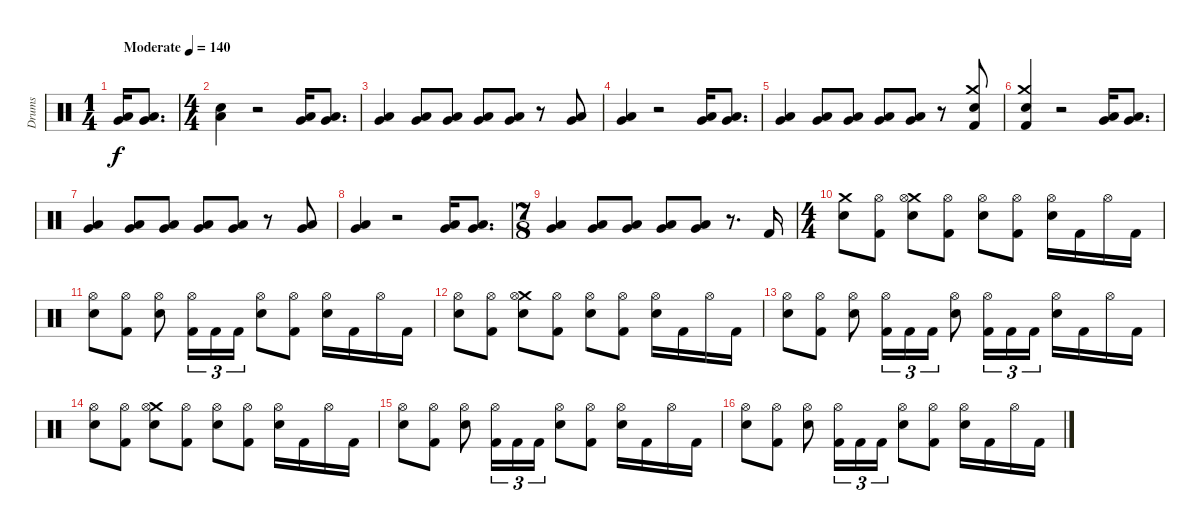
\track ("Drums" "Drums") {instrument percussion}
\staff {score}
\articulation defaults
\ts (1 4)
\tempo (140 "Moderate")
\clef neutral
\ks c
("Very Low Tom (hit)" "Low Tom (hit)").16{dy f} ("Very Low Tom (hit)" "Low Tom (hit)").8{d} |
\ts (4 4)
("Electric Snare (hit)" "Low Tom (hit)").4 r.2 ("Very Low Tom (hit)" "Low Tom (hit)").16 ("Very Low Tom (hit)" "Low Tom (hit)").8{d} |
("Very Low Tom (hit)" "Low Tom (hit)").4 ("Very Low Tom (hit)" "Low Tom (hit)").8 ("Very Low Tom (hit)" "Low Tom (hit)").8 ("Very Low Tom (hit)" "Low Tom (hit)").8 ("Very Low Tom (hit)" "Low Tom (hit)").8 r.8 ("Very Low Tom (hit)" "Low Tom (hit)").8 |
("Very Low Tom (hit)" "Low Tom (hit)").4 r.2 ("Very Low Tom (hit)" "Low Tom (hit)").16 ("Very Low Tom (hit)" "Low Tom (hit)").8{d} |
("Very Low Tom (hit)" "Low Tom (hit)").4 ("Very Low Tom (hit)" "Low Tom (hit)").8 ("Very Low Tom (hit)" "Low Tom (hit)").8 ("Very Low Tom (hit)" "Low Tom (hit)").8 ("Very Low Tom (hit)" "Low Tom (hit)").8 r.8 ("Crash medium (hit)" "Electric Snare (hit)" "Kick (hit) 2").8 |
("Crash medium (hit)" "Electric Snare (hit)" "Kick (hit) 2").4 r.2 ("Very Low Tom (hit)" "Low Tom (hit)").16 ("Very Low Tom (hit)" "Low Tom (hit)").8{d} |
("Very Low Tom (hit)" "Low Tom (hit)").4 ("Very Low Tom (hit)" "Low Tom (hit)").8 ("Very Low Tom (hit)" "Low Tom (hit)").8 ("Very Low Tom (hit)" "Low Tom (hit)").8 ("Very Low Tom (hit)" "Low Tom (hit)").8 r.8 ("Very Low Tom (hit)" "Low Tom (hit)").8 |
("Very Low Tom (hit)" "Low Tom (hit)").4 r.2 ("Very Low Tom (hit)" "Low Tom (hit)").16 ("Very Low Tom (hit)" "Low Tom (hit)").8{d} |
\ts (7 8)
("Very Low Tom (hit)" "Low Tom (hit)").4 ("Very Low Tom (hit)" "Low Tom (hit)").8 ("Very Low Tom (hit)" "Low Tom (hit)").8 ("Very Low Tom (hit)" "Low Tom (hit)").8 ("Very Low Tom (hit)" "Low Tom (hit)").8 r.8{d} "Kick (hit) 2".16 |
\ts (4 4)
("Crash medium (hit)" "Electric Snare (hit)").8 ("Hi-Hat (open)" "Kick (hit) 2").8 ("Crash medium (hit)" "Hi-Hat (open)" "Electric Snare (hit)").8 ("Hi-Hat (open)" "Kick (hit) 2").8 ("Hi-Hat (open)" "Electric Snare (hit)").8 ("Hi-Hat (open)" "Kick (hit) 2").8 ("Hi-Hat (open)" "Electric Snare (hit)").16 "Kick (hit) 2".16 "Hi-Hat (open)".16 "Kick (hit) 2".16 |
("Hi-Hat (open)" "Electric Snare (hit)").8 ("Hi-Hat (open)" "Kick (hit) 2").8 ("Hi-Hat (open)" "Electric Snare (hit)").8 ("Hi-Hat (open)" "Kick (hit) 2").16{tu (3 2)} "Kick (hit) 2".16{tu (3 2)} "Kick (hit) 2".16{tu (3 2)} ("Hi-Hat (open)" "Electric Snare (hit)").8 ("Hi-Hat (open)" "Kick (hit) 2").8 ("Hi-Hat (open)" "Electric Snare (hit)").16 "Kick (hit) 2".16 "Hi-Hat (open)".16 "Kick (hit) 2".16 |
("Hi-Hat (open)" "Electric Snare (hit)").8 ("Hi-Hat (open)" "Kick (hit) 2").8 ("Crash medium (hit)" "Hi-Hat (open)" "Electric Snare (hit)").8 ("Hi-Hat (open)" "Kick (hit) 2").8 ("Hi-Hat (open)" "Electric Snare (hit)").8 ("Hi-Hat (open)" "Kick (hit) 2").8 ("Hi-Hat (open)" "Electric Snare (hit)").16 "Kick (hit) 2".16 "Hi-Hat (open)".16 "Kick (hit) 2".16 |
("Hi-Hat (open)" "Electric Snare (hit)").8 ("Hi-Hat (open)" "Kick (hit) 2").8 ("Hi-Hat (open)" "Electric Snare (hit)").8 ("Hi-Hat (open)" "Kick (hit) 2").16{tu (3 2)} "Kick (hit) 2".16{tu (3 2)} "Kick (hit) 2".16{tu (3 2)} ("Hi-Hat (open)" "Electric Snare (hit)").8 ("Hi-Hat (open)" "Kick (hit) 2").16{tu (3 2)} "Kick (hit) 2".16{tu (3 2)} "Kick (hit) 2".16{tu (3 2)} ("Hi-Hat (open)" "Electric Snare (hit)").16 "Kick (hit) 2".16 "Hi-Hat (open)".16 "Kick (hit) 2".16 |
("Hi-Hat (open)" "Electric Snare (hit)").8 ("Hi-Hat (open)" "Kick (hit) 2").8 ("Crash medium (hit)" "Hi-Hat (open)" "Electric Snare (hit)").8 ("Hi-Hat (open)" "Kick (hit) 2").8 ("Hi-Hat (open)" "Electric Snare (hit)").8 ("Hi-Hat (open)" "Kick (hit) 2").8 ("Hi-Hat (open)" "Electric Snare (hit)").16 "Kick (hit) 2".16 "Hi-Hat (open)".16 "Kick (hit) 2".16 |
("Hi-Hat (open)" "Electric Snare (hit)").8 ("Hi-Hat (open)" "Kick (hit) 2").8 ("Hi-Hat (open)" "Electric Snare (hit)").8 ("Hi-Hat (open)" "Kick (hit) 2").16{tu (3 2)} "Kick (hit) 2".16{tu (3 2)} "Kick (hit) 2".16{tu (3 2)} ("Hi-Hat (open)" "Electric Snare (hit)").8 ("Hi-Hat (open)" "Kick (hit) 2").8 ("Hi-Hat (open)" "Electric Snare (hit)").16 "Kick (hit) 2".16 "Hi-Hat (open)".16 "Kick (hit) 2".16 |
("Hi-Hat (open)" "Electric Snare (hit)").8 ("Hi-Hat (open)" "Kick (hit) 2").8 ("Hi-Hat (open)" "Electric Snare (hit)").8 ("Hi-Hat (open)" "Kick (hit) 2").16{tu (3 2)} "Kick (hit) 2".16{tu (3 2)} "Kick (hit) 2".16{tu (3 2)} ("Hi-Hat (open)" "Electric Snare (hit)").8 ("Hi-Hat (open)" "Kick (hit) 2").8 ("Hi-Hat (open)" "Electric Snare (hit)").16 "Kick (hit) 2".16 "Hi-Hat (open)".16 "Kick (hit) 2".16
